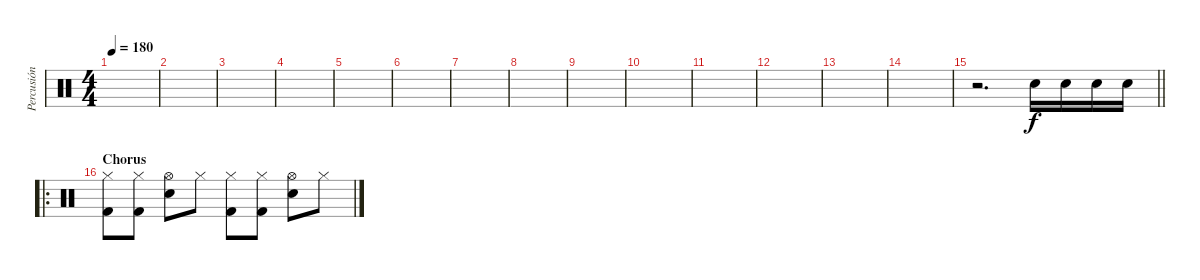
\track ("Percusión" "Percusión") {instrument percussion}
\staff {score}
\articulation defaults
\ts (4 4)
\tempo 180
\clef neutral
\ks c
|
|
|
|
|
|
|
|
|
|
|
|
|
|
\barLineRight lightlight
r.2{d} "Snare (hit) 2".16 "Snare (hit) 2".16 "Snare (hit) 2".16 "Snare (hit) 2".16 |
\ro
\section ("" "Chorus")
("Hi-Hat (closed)" "Kick (hit) 2").8 ("Hi-Hat (closed)" "Kick (hit) 2").8 ("Hi-Hat (open)" "Snare (hit) 2").8 "Hi-Hat (closed)".8 ("Hi-Hat (closed)" "Kick (hit) 2").8 ("Hi-Hat (closed)" "Kick (hit) 2").8 ("Hi-Hat (open)" "Snare (hit) 2").8 "Hi-Hat (closed)".8
